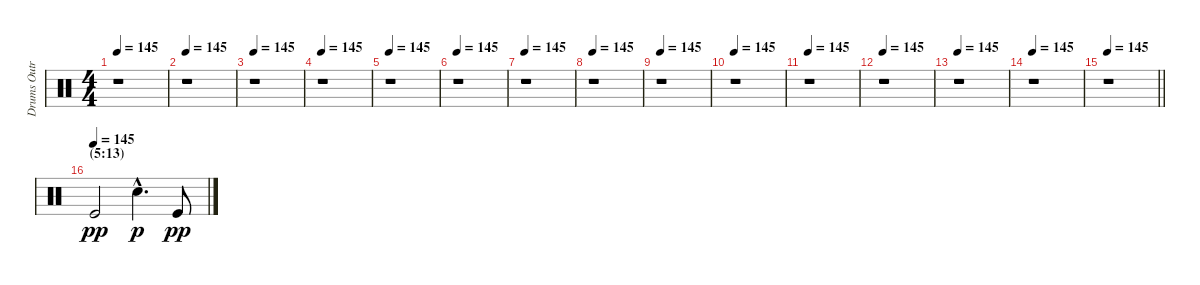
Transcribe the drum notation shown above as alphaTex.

\track ("Drums Outro" "Drums Outr") {instrument percussion}
\staff {score}
\articulation defaults
\ts (4 4)
\tempo 145
\clef neutral
\ks c
r.1{dy pp} |
\tempo 145
r.1 |
\tempo 145
r.1 |
\tempo 145
r.1 |
\tempo 145
r.1 |
\tempo 145
r.1 |
\tempo 145
r.1 |
\tempo 145
r.1 |
\tempo 145
r.1 |
\tempo 145
r.1 |
\tempo 145
r.1 |
\tempo 145
r.1 |
\tempo 145
r.1 |
\tempo 145
r.1 |
\tempo 145
\barLineRight lightlight
r.1 |
\section ("" "(5:13)")
\tempo (145)
"Kick (hit)".2 "Snare (hit) 2"{hac}.4{d dy p} "Kick (hit)".8{dy pp}
